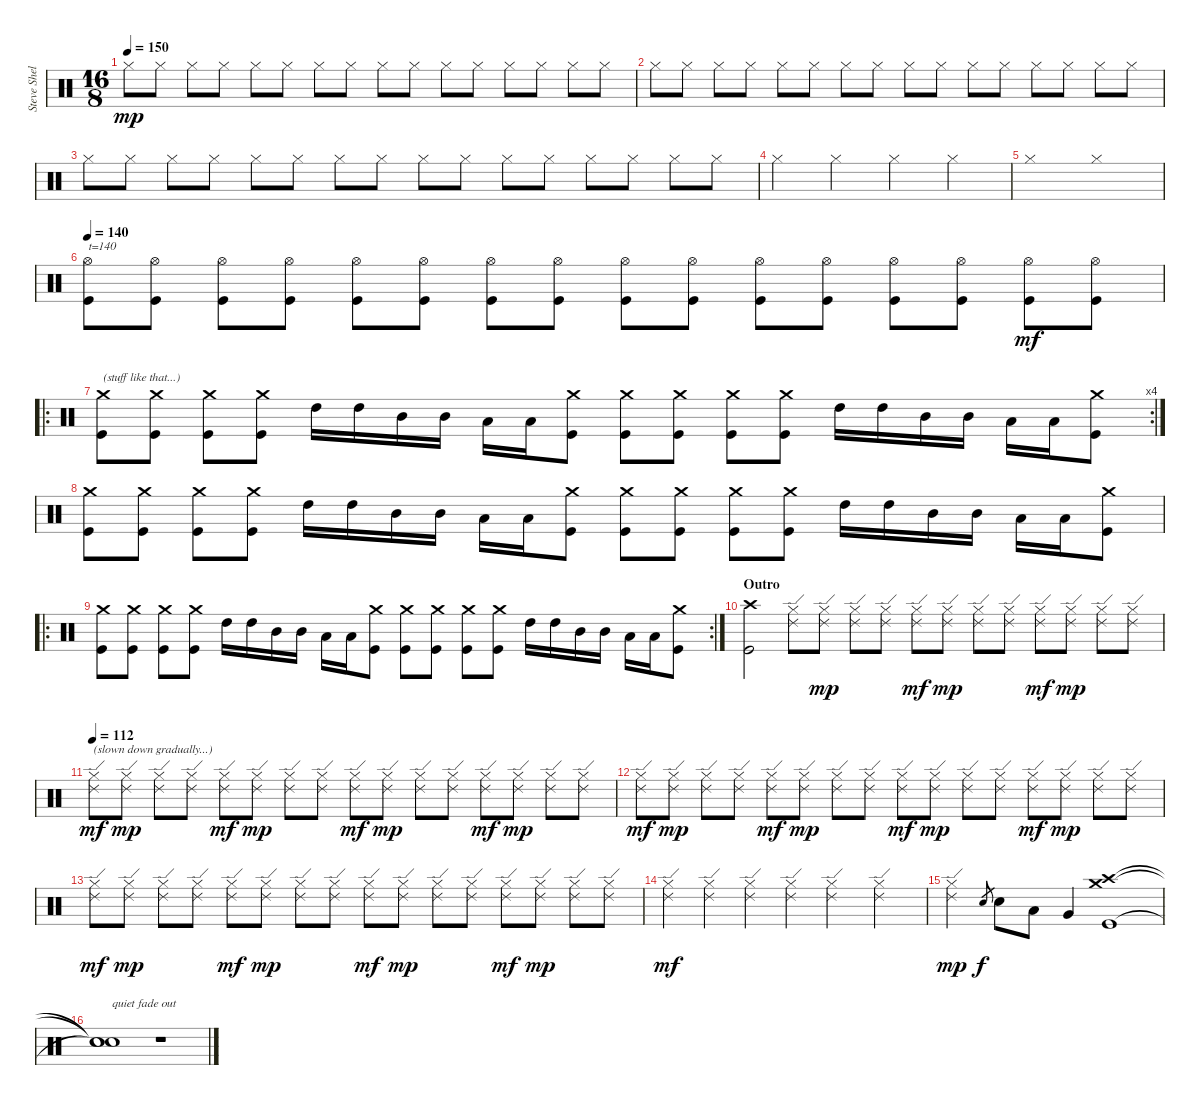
\track ("Steve Shelley" "Steve Shel") {instrument percussion}
\staff {score}
\articulation defaults
\ts (16 8)
\tempo 150
\clef neutral
\ks c "Hi-Hat (closed)".8{dy mp} "Hi-Hat (closed)".8 "Hi-Hat (closed)".8 "Hi-Hat (closed)".8 "Hi-Hat (closed)".8 "Hi-Hat (closed)".8 "Hi-Hat (closed)".8 "Hi-Hat (closed)".8 "Hi-Hat (closed)".8 "Hi-Hat (closed)".8 "Hi-Hat (closed)".8 "Hi-Hat (closed)".8 "Hi-Hat (closed)".8 "Hi-Hat (closed)".8 "Hi-Hat (closed)".8 "Hi-Hat (closed)".8
|
"Hi-Hat (closed)".8 "Hi-Hat (closed)".8 "Hi-Hat (closed)".8 "Hi-Hat (closed)".8 "Hi-Hat (closed)".8 "Hi-Hat (closed)".8 "Hi-Hat (closed)".8 "Hi-Hat (closed)".8 "Hi-Hat (closed)".8 "Hi-Hat (closed)".8 "Hi-Hat (closed)".8 "Hi-Hat (closed)".8 "Hi-Hat (closed)".8 "Hi-Hat (closed)".8 "Hi-Hat (closed)".8 "Hi-Hat (closed)".8 |
"Hi-Hat (closed)".8 "Hi-Hat (closed)".8 "Hi-Hat (closed)".8 "Hi-Hat (closed)".8 "Hi-Hat (closed)".8 "Hi-Hat (closed)".8 "Hi-Hat (closed)".8 "Hi-Hat (closed)".8 "Hi-Hat (closed)".8 "Hi-Hat (closed)".8 "Hi-Hat (closed)".8 "Hi-Hat (closed)".8 "Hi-Hat (closed)".8 "Hi-Hat (closed)".8 "Hi-Hat (closed)".8 "Hi-Hat (closed)".8 |
"Hi-Hat (closed)".2 "Hi-Hat (closed)".2 "Hi-Hat (closed)".2 "Hi-Hat (closed)".2 |
"Hi-Hat (closed)".1 "Hi-Hat (closed)".1 |
\tempo 140
("Hi-Hat (open)" "Kick (hit)").8{txt "t=140"} ("Hi-Hat (open)" "Kick (hit)").8 ("Hi-Hat (open)" "Kick (hit)").8 ("Hi-Hat (open)" "Kick (hit)").8 ("Hi-Hat (open)" "Kick (hit)").8 ("Hi-Hat (open)" "Kick (hit)").8 ("Hi-Hat (open)" "Kick (hit)").8 ("Hi-Hat (open)" "Kick (hit)").8 ("Hi-Hat (open)" "Kick (hit)").8 ("Hi-Hat (open)" "Kick (hit)").8 ("Hi-Hat (open)" "Kick (hit)").8 ("Hi-Hat (open)" "Kick (hit)").8 ("Hi-Hat (open)" "Kick (hit)").8 ("Hi-Hat (open)" "Kick (hit)").8 ("Hi-Hat (open)" "Kick (hit)").8{dy mf} ("Hi-Hat (open)" "Kick (hit)").8 |
\ro
\rc 4
("Crash medium (hit)" "Kick (hit)").8{txt "(stuff like that...)"} ("Crash medium (hit)" "Kick (hit)").8 ("Crash medium (hit)" "Kick (hit)").8 ("Crash medium (hit)" "Kick (hit)").8 "High Tom (hit)".16 "High Tom (hit)".16 "Mid Tom (hit)".16 "Mid Tom (hit)".16 "Low Tom (hit)".16 "Low Tom (hit)".16 ("Crash medium (hit)" "Kick (hit)").8 ("Crash medium (hit)" "Kick (hit)").8 ("Crash medium (hit)" "Kick (hit)").8 ("Crash medium (hit)" "Kick (hit)").8 ("Crash medium (hit)" "Kick (hit)").8 "High Tom (hit)".16 "High Tom (hit)".16 "Mid Tom (hit)".16 "Mid Tom (hit)".16 "Low Tom (hit)".16 "Low Tom (hit)".16 ("Crash medium (hit)" "Kick (hit)").8 |
("Crash medium (hit)" "Kick (hit)").8 ("Crash medium (hit)" "Kick (hit)").8 ("Crash medium (hit)" "Kick (hit)").8 ("Crash medium (hit)" "Kick (hit)").8 "High Tom (hit)".16 "High Tom (hit)".16 "Mid Tom (hit)".16 "Mid Tom (hit)".16 "Low Tom (hit)".16 "Low Tom (hit)".16 ("Crash medium (hit)" "Kick (hit)").8 ("Crash medium (hit)" "Kick (hit)").8 ("Crash medium (hit)" "Kick (hit)").8 ("Crash medium (hit)" "Kick (hit)").8 ("Crash medium (hit)" "Kick (hit)").8 "High Tom (hit)".16 "High Tom (hit)".16 "Mid Tom (hit)".16 "Mid Tom (hit)".16 "Low Tom (hit)".16 "Low Tom (hit)".16 ("Crash medium (hit)" "Kick (hit)").8 |
\ro
\rc 2
("Crash medium (hit)" "Kick (hit)").8 ("Crash medium (hit)" "Kick (hit)").8 ("Crash medium (hit)" "Kick (hit)").8 ("Crash medium (hit)" "Kick (hit)").8 "High Tom (hit)".16 "High Tom (hit)".16 "Mid Tom (hit)".16 "Mid Tom (hit)".16 "Low Tom (hit)".16 "Low Tom (hit)".16 ("Crash medium (hit)" "Kick (hit)").8 ("Crash medium (hit)" "Kick (hit)").8 ("Crash medium (hit)" "Kick (hit)").8 ("Crash medium (hit)" "Kick (hit)").8 ("Crash medium (hit)" "Kick (hit)").8 "High Tom (hit)".16 "High Tom (hit)".16 "Mid Tom (hit)".16 "Mid Tom (hit)".16 "Low Tom (hit)".16 "Low Tom (hit)".16 ("Crash medium (hit)" "Kick (hit)").8 |
\section ("" "Outro")
("Crash high (hit)" "Kick (hit)").2 ("Ride (edge) 2" "Hi-Hat (closed)").8 ("Ride (edge) 2" "Hi-Hat (closed)").8{dy mp} ("Ride (edge) 2" "Hi-Hat (closed)").8 ("Ride (edge) 2" "Hi-Hat (closed)").8 ("Ride (edge) 2" "Hi-Hat (closed)").8{dy mf} ("Ride (edge) 2" "Hi-Hat (closed)").8{dy mp} ("Ride (edge) 2" "Hi-Hat (closed)").8 ("Ride (edge) 2" "Hi-Hat (closed)").8 ("Ride (edge) 2" "Hi-Hat (closed)").8{dy mf} ("Ride (edge) 2" "Hi-Hat (closed)").8{dy mp} ("Ride (edge) 2" "Hi-Hat (closed)").8 ("Ride (edge) 2" "Hi-Hat (closed)").8 |
\tempo 112
("Ride (edge) 2" "Hi-Hat (closed)").8{txt "(slown down gradually...)" dy mf} ("Ride (edge) 2" "Hi-Hat (closed)").8{dy mp} ("Ride (edge) 2" "Hi-Hat (closed)").8 ("Ride (edge) 2" "Hi-Hat (closed)").8 ("Ride (edge) 2" "Hi-Hat (closed)").8{dy mf} ("Ride (edge) 2" "Hi-Hat (closed)").8{dy mp} ("Ride (edge) 2" "Hi-Hat (closed)").8 ("Ride (edge) 2" "Hi-Hat (closed)").8 ("Ride (edge) 2" "Hi-Hat (closed)").8{dy mf} ("Ride (edge) 2" "Hi-Hat (closed)").8{dy mp} ("Ride (edge) 2" "Hi-Hat (closed)").8 ("Ride (edge) 2" "Hi-Hat (closed)").8 ("Ride (edge) 2" "Hi-Hat (closed)").8{dy mf} ("Ride (edge) 2" "Hi-Hat (closed)").8{dy mp} ("Ride (edge) 2" "Hi-Hat (closed)").8 ("Ride (edge) 2" "Hi-Hat (closed)").8 |
("Ride (edge) 2" "Hi-Hat (closed)").8{dy mf} ("Ride (edge) 2" "Hi-Hat (closed)").8{dy mp} ("Ride (edge) 2" "Hi-Hat (closed)").8 ("Ride (edge) 2" "Hi-Hat (closed)").8 ("Ride (edge) 2" "Hi-Hat (closed)").8{dy mf} ("Ride (edge) 2" "Hi-Hat (closed)").8{dy mp} ("Ride (edge) 2" "Hi-Hat (closed)").8 ("Ride (edge) 2" "Hi-Hat (closed)").8 ("Ride (edge) 2" "Hi-Hat (closed)").8{dy mf} ("Ride (edge) 2" "Hi-Hat (closed)").8{dy mp} ("Ride (edge) 2" "Hi-Hat (closed)").8 ("Ride (edge) 2" "Hi-Hat (closed)").8 ("Ride (edge) 2" "Hi-Hat (closed)").8{dy mf} ("Ride (edge) 2" "Hi-Hat (closed)").8{dy mp} ("Ride (edge) 2" "Hi-Hat (closed)").8 ("Ride (edge) 2" "Hi-Hat (closed)").8 |
("Ride (edge) 2" "Hi-Hat (closed)").8{dy mf} ("Ride (edge) 2" "Hi-Hat (closed)").8{dy mp} ("Ride (edge) 2" "Hi-Hat (closed)").8 ("Ride (edge) 2" "Hi-Hat (closed)").8 ("Ride (edge) 2" "Hi-Hat (closed)").8{dy mf} ("Ride (edge) 2" "Hi-Hat (closed)").8{dy mp} ("Ride (edge) 2" "Hi-Hat (closed)").8 ("Ride (edge) 2" "Hi-Hat (closed)").8 ("Ride (edge) 2" "Hi-Hat (closed)").8{dy mf} ("Ride (edge) 2" "Hi-Hat (closed)").8{dy mp} ("Ride (edge) 2" "Hi-Hat (closed)").8 ("Ride (edge) 2" "Hi-Hat (closed)").8 ("Ride (edge) 2" "Hi-Hat (closed)").8{dy mf} ("Ride (edge) 2" "Hi-Hat (closed)").8{dy mp} ("Ride (edge) 2" "Hi-Hat (closed)").8 ("Ride (edge) 2" "Hi-Hat (closed)").8 |
("Ride (edge) 2" "Hi-Hat (closed)").4{dy mf} ("Ride (edge) 2" "Hi-Hat (closed)").4 ("Ride (edge) 2" "Hi-Hat (closed)").4 ("Ride (edge) 2" "Hi-Hat (closed)").4 ("Ride (edge) 2" "Hi-Hat (closed)").2 ("Ride (edge) 2" "Hi-Hat (closed)").2 |
("Ride (edge) 2" "Hi-Hat (closed)").2{dy mp} "Electric Snare (hit)".8{gr dy f} "Electric Snare (hit)".8 "Low Tom (hit)".8 "Very Low Tom (hit)".4 ("Crash high (hit)" "Crash medium (hit)" "Kick (hit)").1 |
("Snare (hit)"{t} "Snare (hit)"{t} "Snare (hit)"{t}).1{txt "quiet fade out" volume 0} r.1
